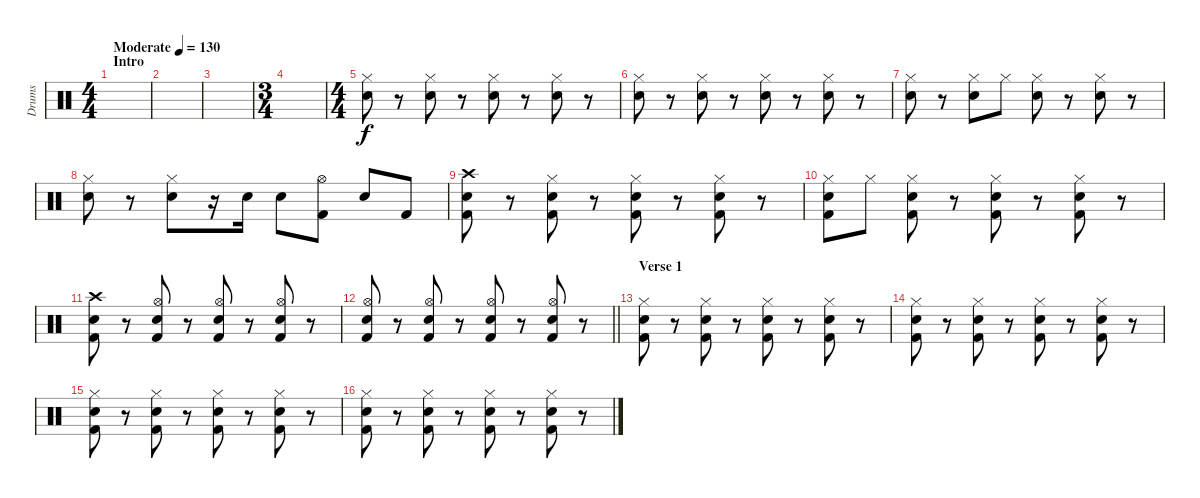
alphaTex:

\track ("Drums" "Drums") {instrument percussion}
\staff {score}
\articulation defaults
\ts (4 4)
\section ("" "Intro")
\tempo (130 "Moderate")
\clef neutral
\ks c
|
|
|
\ts (3 4)
|
\ts (4 4)
("Hi-Hat (closed)" "Snare (hit) 2").8 r.8 ("Hi-Hat (closed)" "Snare (hit) 2").8 r.8 ("Hi-Hat (closed)" "Snare (hit) 2").8 r.8 ("Hi-Hat (closed)" "Snare (hit) 2").8 r.8 |
("Hi-Hat (closed)" "Snare (hit) 2").8 r.8 ("Hi-Hat (closed)" "Snare (hit) 2").8 r.8 ("Hi-Hat (closed)" "Snare (hit) 2").8 r.8 ("Hi-Hat (closed)" "Snare (hit) 2").8 r.8 |
("Hi-Hat (closed)" "Snare (hit) 2").8 r.8 ("Hi-Hat (closed)" "Snare (hit) 2").8 "Hi-Hat (closed)".8 ("Hi-Hat (closed)" "Snare (hit) 2").8 r.8 ("Hi-Hat (closed)" "Snare (hit) 2").8 r.8 |
("Hi-Hat (closed)" "Snare (hit) 2").8 r.8 ("Hi-Hat (closed)" "Snare (hit) 2").8 r.16 "Snare (hit) 2".16 "Snare (hit) 2".8 ("Hi-Hat (open)" "Kick (hit) 2").8 "Snare (hit) 2".8 "Kick (hit) 2".8 |
("Crash high (hit)" "Snare (hit) 2" "Kick (hit) 2").8 r.8 ("Hi-Hat (closed)" "Snare (hit) 2" "Kick (hit) 2").8 r.8 ("Hi-Hat (closed)" "Snare (hit) 2" "Kick (hit) 2").8 r.8 ("Hi-Hat (closed)" "Snare (hit) 2" "Kick (hit) 2").8 r.8 |
("Hi-Hat (closed)" "Snare (hit) 2" "Kick (hit) 2").8 "Hi-Hat (closed)".8 ("Hi-Hat (closed)" "Snare (hit) 2" "Kick (hit) 2").8 r.8 ("Hi-Hat (closed)" "Snare (hit) 2" "Kick (hit) 2").8 r.8 ("Hi-Hat (closed)" "Snare (hit) 2" "Kick (hit) 2").8 r.8 |
("Crash high (hit)" "Snare (hit) 2" "Kick (hit) 2").8 r.8 ("Hi-Hat (open)" "Snare (hit) 2" "Kick (hit) 2").8 r.8 ("Hi-Hat (open)" "Snare (hit) 2" "Kick (hit) 2").8 r.8 ("Hi-Hat (open)" "Snare (hit) 2" "Kick (hit) 2").8 r.8 |
\barLineRight lightlight
("Hi-Hat (open)" "Snare (hit) 2" "Kick (hit) 2").8 r.8 ("Hi-Hat (open)" "Snare (hit) 2" "Kick (hit) 2").8 r.8 ("Hi-Hat (open)" "Snare (hit) 2" "Kick (hit) 2").8 r.8 ("Hi-Hat (open)" "Snare (hit) 2" "Kick (hit) 2").8 r.8 |
\section ("" "Verse 1")
("Hi-Hat (closed)" "Snare (hit) 2" "Kick (hit) 2").8 r.8 ("Hi-Hat (closed)" "Snare (hit) 2" "Kick (hit) 2").8 r.8 ("Hi-Hat (closed)" "Snare (hit) 2" "Kick (hit) 2").8 r.8 ("Hi-Hat (closed)" "Snare (hit) 2" "Kick (hit) 2").8 r.8 |
("Hi-Hat (closed)" "Snare (hit) 2" "Kick (hit) 2").8 r.8 ("Hi-Hat (closed)" "Snare (hit) 2" "Kick (hit) 2").8 r.8 ("Hi-Hat (closed)" "Snare (hit) 2" "Kick (hit) 2").8 r.8 ("Hi-Hat (closed)" "Snare (hit) 2" "Kick (hit) 2").8 r.8 |
("Hi-Hat (closed)" "Snare (hit) 2" "Kick (hit) 2").8 r.8 ("Hi-Hat (closed)" "Snare (hit) 2" "Kick (hit) 2").8 r.8 ("Hi-Hat (closed)" "Snare (hit) 2" "Kick (hit) 2").8 r.8 ("Hi-Hat (closed)" "Snare (hit) 2" "Kick (hit) 2").8 r.8 |
("Hi-Hat (closed)" "Snare (hit) 2" "Kick (hit) 2").8 r.8 ("Hi-Hat (closed)" "Snare (hit) 2" "Kick (hit) 2").8 r.8 ("Hi-Hat (closed)" "Snare (hit) 2" "Kick (hit) 2").8 r.8 ("Hi-Hat (closed)" "Snare (hit) 2" "Kick (hit) 2").8 r.8
